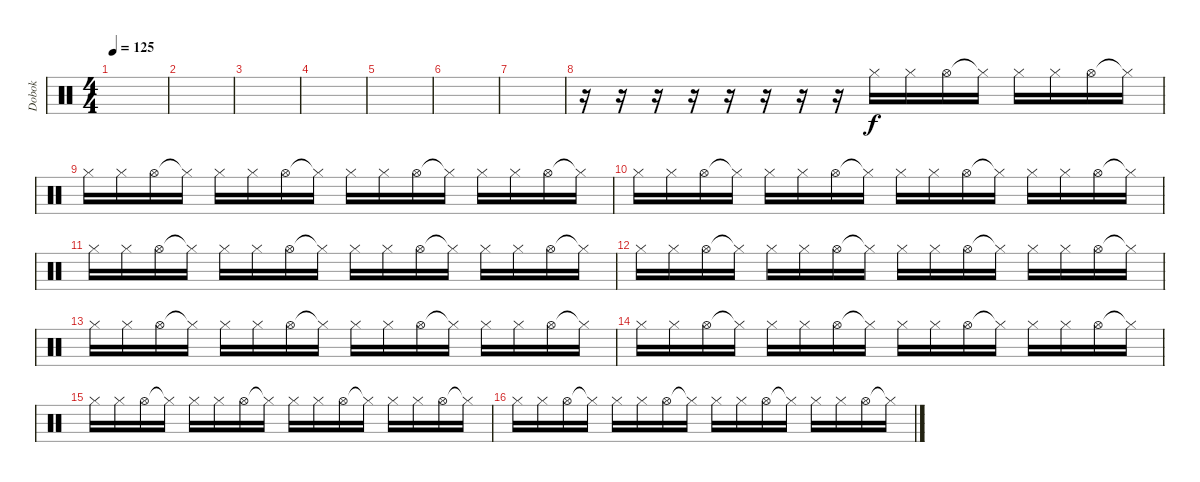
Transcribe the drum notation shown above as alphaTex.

\track ("Dobok" "Dobok") {instrument percussion}
\staff {score}
\articulation defaults
\ts (4 4)
\tempo 125
\clef neutral
\ks c
|
|
|
|
|
|
|
r.16 r.16 r.16 r.16 r.16 r.16 r.16 r.16 "Hi-Hat (closed)".16 "Hi-Hat (closed)".16 "Hi-Hat (open)".16 "Hi-Hat (closed)"{t}.16 "Hi-Hat (closed)".16 "Hi-Hat (closed)".16 "Hi-Hat (open)".16 "Hi-Hat (closed)"{t}.16 |
"Hi-Hat (closed)".16 "Hi-Hat (closed)".16 "Hi-Hat (open)".16 "Hi-Hat (closed)"{t}.16 "Hi-Hat (closed)".16 "Hi-Hat (closed)".16 "Hi-Hat (open)".16 "Hi-Hat (closed)"{t}.16 "Hi-Hat (closed)".16 "Hi-Hat (closed)".16 "Hi-Hat (open)".16 "Hi-Hat (closed)"{t}.16 "Hi-Hat (closed)".16 "Hi-Hat (closed)".16 "Hi-Hat (open)".16 "Hi-Hat (closed)"{t}.16 |
"Hi-Hat (closed)".16 "Hi-Hat (closed)".16 "Hi-Hat (open)".16 "Hi-Hat (closed)"{t}.16 "Hi-Hat (closed)".16 "Hi-Hat (closed)".16 "Hi-Hat (open)".16 "Hi-Hat (closed)"{t}.16 "Hi-Hat (closed)".16 "Hi-Hat (closed)".16 "Hi-Hat (open)".16 "Hi-Hat (closed)"{t}.16 "Hi-Hat (closed)".16 "Hi-Hat (closed)".16 "Hi-Hat (open)".16 "Hi-Hat (closed)"{t}.16 |
"Hi-Hat (closed)".16 "Hi-Hat (closed)".16 "Hi-Hat (open)".16 "Hi-Hat (closed)"{t}.16 "Hi-Hat (closed)".16 "Hi-Hat (closed)".16 "Hi-Hat (open)".16 "Hi-Hat (closed)"{t}.16 "Hi-Hat (closed)".16 "Hi-Hat (closed)".16 "Hi-Hat (open)".16 "Hi-Hat (closed)"{t}.16 "Hi-Hat (closed)".16 "Hi-Hat (closed)".16 "Hi-Hat (open)".16 "Hi-Hat (closed)"{t}.16 |
"Hi-Hat (closed)".16 "Hi-Hat (closed)".16 "Hi-Hat (open)".16 "Hi-Hat (closed)"{t}.16 "Hi-Hat (closed)".16 "Hi-Hat (closed)".16 "Hi-Hat (open)".16 "Hi-Hat (closed)"{t}.16 "Hi-Hat (closed)".16 "Hi-Hat (closed)".16 "Hi-Hat (open)".16 "Hi-Hat (closed)"{t}.16 "Hi-Hat (closed)".16 "Hi-Hat (closed)".16 "Hi-Hat (open)".16 "Hi-Hat (closed)"{t}.16 |
"Hi-Hat (closed)".16 "Hi-Hat (closed)".16 "Hi-Hat (open)".16 "Hi-Hat (closed)"{t}.16 "Hi-Hat (closed)".16 "Hi-Hat (closed)".16 "Hi-Hat (open)".16 "Hi-Hat (closed)"{t}.16 "Hi-Hat (closed)".16 "Hi-Hat (closed)".16 "Hi-Hat (open)".16 "Hi-Hat (closed)"{t}.16 "Hi-Hat (closed)".16 "Hi-Hat (closed)".16 "Hi-Hat (open)".16 "Hi-Hat (closed)"{t}.16 |
"Hi-Hat (closed)".16 "Hi-Hat (closed)".16 "Hi-Hat (open)".16 "Hi-Hat (closed)"{t}.16 "Hi-Hat (closed)".16 "Hi-Hat (closed)".16 "Hi-Hat (open)".16 "Hi-Hat (closed)"{t}.16 "Hi-Hat (closed)".16 "Hi-Hat (closed)".16 "Hi-Hat (open)".16 "Hi-Hat (closed)"{t}.16 "Hi-Hat (closed)".16 "Hi-Hat (closed)".16 "Hi-Hat (open)".16 "Hi-Hat (closed)"{t}.16 |
"Hi-Hat (closed)".16 "Hi-Hat (closed)".16 "Hi-Hat (open)".16 "Hi-Hat (closed)"{t}.16 "Hi-Hat (closed)".16 "Hi-Hat (closed)".16 "Hi-Hat (open)".16 "Hi-Hat (closed)"{t}.16 "Hi-Hat (closed)".16 "Hi-Hat (closed)".16 "Hi-Hat (open)".16 "Hi-Hat (closed)"{t}.16 "Hi-Hat (closed)".16 "Hi-Hat (closed)".16 "Hi-Hat (open)".16 "Hi-Hat (closed)"{t}.16 |
"Hi-Hat (closed)".16 "Hi-Hat (closed)".16 "Hi-Hat (open)".16 "Hi-Hat (closed)"{t}.16 "Hi-Hat (closed)".16 "Hi-Hat (closed)".16 "Hi-Hat (open)".16 "Hi-Hat (closed)"{t}.16 "Hi-Hat (closed)".16 "Hi-Hat (closed)".16 "Hi-Hat (open)".16 "Hi-Hat (closed)"{t}.16 "Hi-Hat (closed)".16 "Hi-Hat (closed)".16 "Hi-Hat (open)".16 "Hi-Hat (closed)"{t}.16
